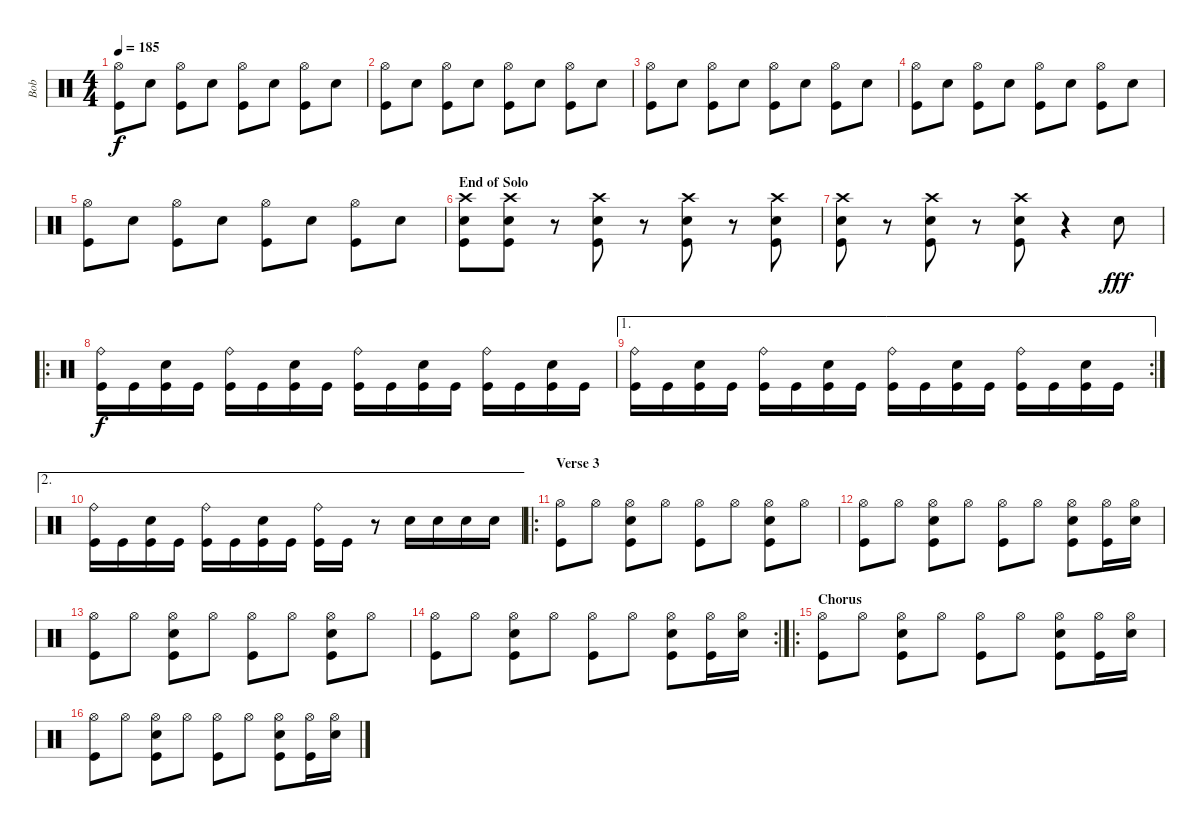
\track ("Bob" "Bob") {instrument percussion}
\staff {score}
\articulation defaults
\ts (4 4)
\tempo 185
\clef neutral
\ks c
("Hi-Hat (open)" "Kick (hit)").8{dy f} "Snare (hit) 2".8 ("Hi-Hat (open)" "Kick (hit)").8 "Snare (hit) 2".8 ("Hi-Hat (open)" "Kick (hit)").8 "Snare (hit) 2".8 ("Hi-Hat (open)" "Kick (hit)").8 "Snare (hit) 2".8 |
("Hi-Hat (open)" "Kick (hit)").8 "Snare (hit) 2".8 ("Hi-Hat (open)" "Kick (hit)").8 "Snare (hit) 2".8 ("Hi-Hat (open)" "Kick (hit)").8 "Snare (hit) 2".8 ("Hi-Hat (open)" "Kick (hit)").8 "Snare (hit) 2".8 |
("Hi-Hat (open)" "Kick (hit)").8 "Snare (hit) 2".8 ("Hi-Hat (open)" "Kick (hit)").8 "Snare (hit) 2".8 ("Hi-Hat (open)" "Kick (hit)").8 "Snare (hit) 2".8 ("Hi-Hat (open)" "Kick (hit)").8 "Snare (hit) 2".8 |
("Hi-Hat (open)" "Kick (hit)").8 "Snare (hit) 2".8 ("Hi-Hat (open)" "Kick (hit)").8 "Snare (hit) 2".8 ("Hi-Hat (open)" "Kick (hit)").8 "Snare (hit) 2".8 ("Hi-Hat (open)" "Kick (hit)").8 "Snare (hit) 2".8 |
("Hi-Hat (open)" "Kick (hit)").8 "Snare (hit) 2".8 ("Hi-Hat (open)" "Kick (hit)").8 "Snare (hit) 2".8 ("Hi-Hat (open)" "Kick (hit)").8 "Snare (hit) 2".8 ("Hi-Hat (open)" "Kick (hit)").8 "Snare (hit) 2".8 |
\section ("" "End of Solo")
("Crash high (hit)" "Snare (hit) 2" "Kick (hit)").8 ("Crash high (hit)" "Snare (hit) 2" "Kick (hit)").8 r.8 ("Crash high (hit)" "Snare (hit) 2" "Kick (hit)").8 r.8 ("Crash high (hit)" "Snare (hit) 2" "Kick (hit)").8 r.8 ("Crash high (hit)" "Snare (hit) 2" "Kick (hit)").8 |
("Crash high (hit)" "Snare (hit) 2" "Kick (hit)").8 r.8 ("Crash high (hit)" "Snare (hit) 2" "Kick (hit)").8 r.8 ("Crash high (hit)" "Snare (hit) 2" "Kick (hit)").8 r.4 "Snare (hit) 2".8{txt " " dy fff} |
\ro
("Ride (bell)" "Kick (hit)").16{dy f} "Kick (hit)".16 ("Snare (hit) 2" "Kick (hit)").16 "Kick (hit)".16 ("Ride (bell)" "Kick (hit)").16 "Kick (hit)".16 ("Snare (hit) 2" "Kick (hit)").16 "Kick (hit)".16 ("Ride (bell)" "Kick (hit)").16 "Kick (hit)".16 ("Snare (hit) 2" "Kick (hit)").16 "Kick (hit)".16 ("Ride (bell)" "Kick (hit)").16 "Kick (hit)".16 ("Snare (hit) 2" "Kick (hit)").16 "Kick (hit)".16 |
\ae 1
\rc 2
("Ride (bell)" "Kick (hit)").16 "Kick (hit)".16 ("Snare (hit) 2" "Kick (hit)").16 "Kick (hit)".16 ("Ride (bell)" "Kick (hit)").16 "Kick (hit)".16 ("Snare (hit) 2" "Kick (hit)").16 "Kick (hit)".16 ("Ride (bell)" "Kick (hit)").16 "Kick (hit)".16 ("Snare (hit) 2" "Kick (hit)").16 "Kick (hit)".16 ("Ride (bell)" "Kick (hit)").16 "Kick (hit)".16 ("Snare (hit) 2" "Kick (hit)").16 "Kick (hit)".16 |
\ae 2
("Ride (bell)" "Kick (hit)").16 "Kick (hit)".16 ("Snare (hit) 2" "Kick (hit)").16 "Kick (hit)".16 ("Ride (bell)" "Kick (hit)").16 "Kick (hit)".16 ("Snare (hit) 2" "Kick (hit)").16 "Kick (hit)".16 ("Ride (bell)" "Kick (hit)").16 "Kick (hit)".16 r.8 "Snare (hit) 2".16 "Snare (hit) 2".16 "Snare (hit) 2".16 "Snare (hit) 2".16 |
\ro
\section ("" "Verse 3")
("Hi-Hat (open)" "Kick (hit)").8 "Hi-Hat (open)".8 ("Hi-Hat (open)" "Snare (hit) 2" "Kick (hit)").8 "Hi-Hat (open)".8 ("Hi-Hat (open)" "Kick (hit)").8 "Hi-Hat (open)".8 ("Hi-Hat (open)" "Snare (hit) 2" "Kick (hit)").8 "Hi-Hat (open)".8 |
("Hi-Hat (open)" "Kick (hit)").8 "Hi-Hat (open)".8 ("Hi-Hat (open)" "Snare (hit) 2" "Kick (hit)").8 "Hi-Hat (open)".8 ("Hi-Hat (open)" "Kick (hit)").8 "Hi-Hat (open)".8 ("Hi-Hat (open)" "Snare (hit) 2" "Kick (hit)").8 ("Hi-Hat (open)" "Kick (hit)").16 ("Hi-Hat (open)" "Snare (hit) 2").16 |
("Hi-Hat (open)" "Kick (hit)").8 "Hi-Hat (open)".8 ("Hi-Hat (open)" "Snare (hit) 2" "Kick (hit)").8 "Hi-Hat (open)".8 ("Hi-Hat (open)" "Kick (hit)").8 "Hi-Hat (open)".8 ("Hi-Hat (open)" "Snare (hit) 2" "Kick (hit)").8 "Hi-Hat (open)".8 |
\rc 2
("Hi-Hat (open)" "Kick (hit)").8 "Hi-Hat (open)".8 ("Hi-Hat (open)" "Snare (hit) 2" "Kick (hit)").8 "Hi-Hat (open)".8 ("Hi-Hat (open)" "Kick (hit)").8 "Hi-Hat (open)".8 ("Hi-Hat (open)" "Snare (hit) 2" "Kick (hit)").8 ("Hi-Hat (open)" "Kick (hit)").16 ("Hi-Hat (open)" "Snare (hit) 2").16 |
\ro
\section ("" "Chorus")
("Hi-Hat (open)" "Kick (hit)").8 "Hi-Hat (open)".8 ("Hi-Hat (open)" "Snare (hit) 2" "Kick (hit)").8 "Hi-Hat (open)".8 ("Hi-Hat (open)" "Kick (hit)").8 "Hi-Hat (open)".8 ("Hi-Hat (open)" "Snare (hit) 2" "Kick (hit)").8 ("Hi-Hat (open)" "Kick (hit)").16 ("Hi-Hat (open)" "Snare (hit) 2").16 |
("Hi-Hat (open)" "Kick (hit)").8 "Hi-Hat (open)".8 ("Hi-Hat (open)" "Snare (hit) 2" "Kick (hit)").8 "Hi-Hat (open)".8 ("Hi-Hat (open)" "Kick (hit)").8 "Hi-Hat (open)".8 ("Hi-Hat (open)" "Snare (hit) 2" "Kick (hit)").8 ("Hi-Hat (open)" "Kick (hit)").16 ("Hi-Hat (open)" "Snare (hit) 2").16
